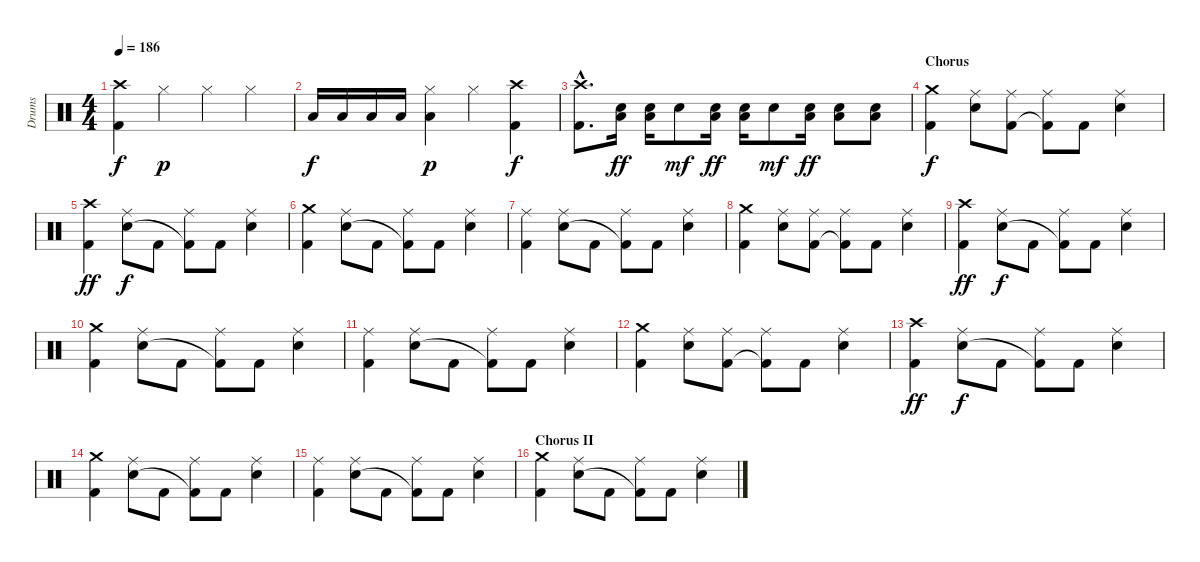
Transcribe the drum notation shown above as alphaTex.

\track ("Drums" "Drums") {instrument percussion}
\staff {score}
\articulation defaults
\ts (4 4)
\tempo 186
\clef neutral
\ks c
("Crash high (hit)" "Kick (hit) 2").4{dy f} "Hi-Hat (closed)".4{dy p} "Hi-Hat (closed)".4 "Hi-Hat (closed)".4 |
"Low Tom (hit)".16{dy f} "Low Tom (hit)".16 "Low Tom (hit)".16 "Low Tom (hit)".16 ("Hi-Hat (closed)" "Low Tom (hit)").4{dy p} "Hi-Hat (closed)".4 ("Crash high (hit)" "Kick (hit) 2").4{dy f} |
("Crash high (hit)"{hac} "Kick (hit) 2"{hac}).8{d} ("Electric Snare (hit)" "Low Floor Tom (hit)").16{dy ff} ("Electric Snare (hit)" "Low Floor Tom (hit)").16 "Electric Snare (hit)".8{dy mf} ("Electric Snare (hit)" "Low Floor Tom (hit)").16{dy ff} ("Electric Snare (hit)" "Low Floor Tom (hit)").16 "Electric Snare (hit)".8{dy mf} ("Electric Snare (hit)" "Low Floor Tom (hit)").16{dy ff} ("Electric Snare (hit)" "Low Tom (hit)").8 ("Electric Snare (hit)" "Low Tom (hit)").8 |
\section ("" "Chorus")
("Crash medium (hit)" "Kick (hit) 2").4{dy f} ("Ride (middle)" "Electric Snare (hit)").8 ("Ride (middle)" "Kick (hit) 2").8 ("Ride (middle)" "Kick (hit) 2"{t}).8 "Kick (hit) 2".8 ("Ride (middle)" "Electric Snare (hit)").4 |
("Crash high (hit)" "Kick (hit) 2").4{dy ff} ("Ride (middle)" "Electric Snare (hit)").8{dy f} "Kick (hit) 2".8 ("Ride (middle)" "Kick (hit) 2"{t}).8 "Kick (hit) 2".8 ("Ride (middle)" "Electric Snare (hit)").4 |
("Crash medium (hit)" "Kick (hit) 2").4 ("Ride (middle)" "Electric Snare (hit)").8 "Kick (hit) 2".8 ("Ride (middle)" "Kick (hit) 2"{t}).8 "Kick (hit) 2".8 ("Ride (middle)" "Electric Snare (hit)").4 |
("Ride (middle)" "Kick (hit) 2").4 ("Ride (middle)" "Electric Snare (hit)").8 "Kick (hit) 2".8 ("Ride (middle)" "Kick (hit) 2"{t}).8 "Kick (hit) 2".8 ("Ride (middle)" "Electric Snare (hit)").4 |
("Crash medium (hit)" "Kick (hit) 2").4 ("Ride (middle)" "Electric Snare (hit)").8 ("Ride (middle)" "Kick (hit) 2").8 ("Ride (middle)" "Kick (hit) 2"{t}).8 "Kick (hit) 2".8 ("Ride (middle)" "Electric Snare (hit)").4 |
("Crash high (hit)" "Kick (hit) 2").4{dy ff} ("Ride (middle)" "Electric Snare (hit)").8{dy f} "Kick (hit) 2".8 ("Ride (middle)" "Kick (hit) 2"{t}).8 "Kick (hit) 2".8 ("Ride (middle)" "Electric Snare (hit)").4 |
("Crash medium (hit)" "Kick (hit) 2").4 ("Ride (middle)" "Electric Snare (hit)").8 "Kick (hit) 2".8 ("Ride (middle)" "Kick (hit) 2"{t}).8 "Kick (hit) 2".8 ("Ride (middle)" "Electric Snare (hit)").4 |
("Ride (middle)" "Kick (hit) 2").4 ("Ride (middle)" "Electric Snare (hit)").8 "Kick (hit) 2".8 ("Ride (middle)" "Kick (hit) 2"{t}).8 "Kick (hit) 2".8 ("Ride (middle)" "Electric Snare (hit)").4 |
("Crash medium (hit)" "Kick (hit) 2").4 ("Ride (middle)" "Electric Snare (hit)").8 ("Ride (middle)" "Kick (hit) 2").8 ("Ride (middle)" "Kick (hit) 2"{t}).8 "Kick (hit) 2".8 ("Ride (middle)" "Electric Snare (hit)").4 |
("Crash high (hit)" "Kick (hit) 2").4{dy ff} ("Ride (middle)" "Electric Snare (hit)").8{dy f} "Kick (hit) 2".8 ("Ride (middle)" "Kick (hit) 2"{t}).8 "Kick (hit) 2".8 ("Ride (middle)" "Electric Snare (hit)").4 |
("Crash medium (hit)" "Kick (hit) 2").4 ("Ride (middle)" "Electric Snare (hit)").8 "Kick (hit) 2".8 ("Ride (middle)" "Kick (hit) 2"{t}).8 "Kick (hit) 2".8 ("Ride (middle)" "Electric Snare (hit)").4 |
("Ride (middle)" "Kick (hit) 2").4 ("Ride (middle)" "Electric Snare (hit)").8 "Kick (hit) 2".8 ("Ride (middle)" "Kick (hit) 2"{t}).8 "Kick (hit) 2".8 ("Ride (middle)" "Electric Snare (hit)").4 |
\section ("" "Chorus II")
("Crash medium (hit)" "Kick (hit) 2").4 ("Ride (middle)" "Electric Snare (hit)").8 "Kick (hit) 2".8 ("Ride (middle)" "Kick (hit) 2"{t}).8 "Kick (hit) 2".8 ("Ride (middle)" "Electric Snare (hit)").4
